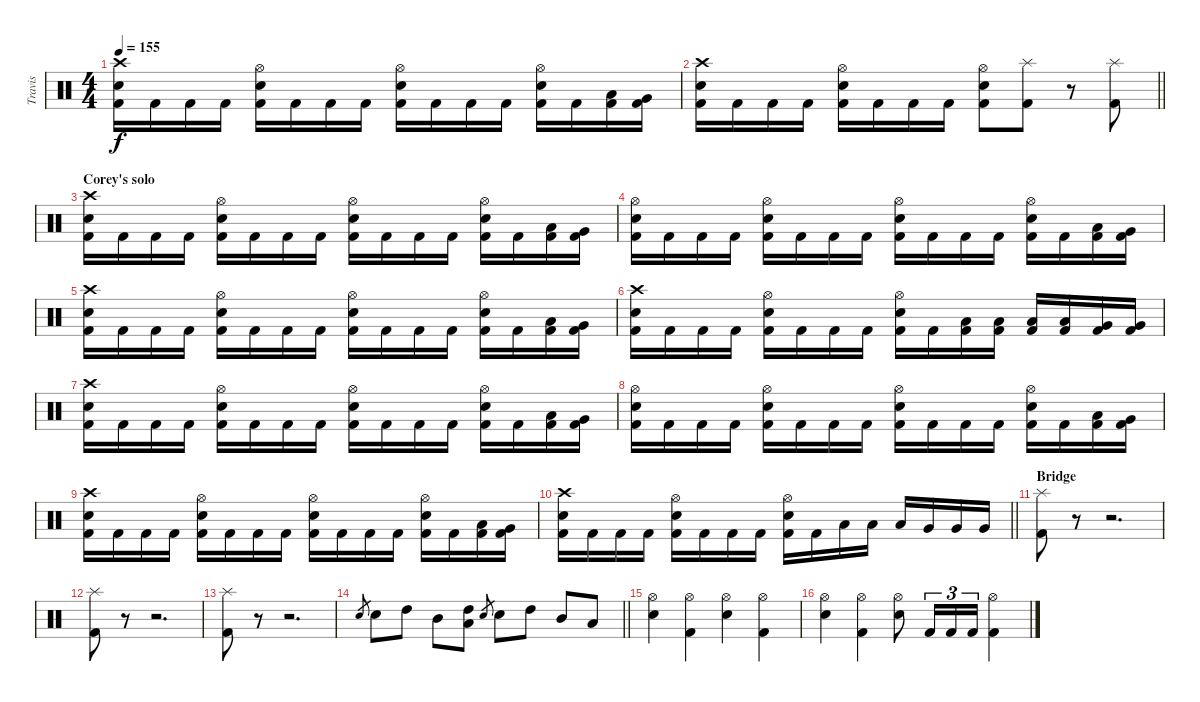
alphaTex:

\track ("Travis" "Travis") {instrument percussion}
\staff {score}
\articulation defaults
\ts (4 4)
\tempo 155
\clef neutral
\ks c
("Crash high (hit)" "Snare (hit) 2" "Kick (hit) 2").16{dy f} "Kick (hit) 2".16 "Kick (hit) 2".16 "Kick (hit) 2".16 ("Hi-Hat (open)" "Snare (hit) 2" "Kick (hit) 2").16 "Kick (hit) 2".16 "Kick (hit) 2".16 "Kick (hit) 2".16 ("Hi-Hat (open)" "Snare (hit) 2" "Kick (hit) 2").16 "Kick (hit) 2".16 "Kick (hit) 2".16 "Kick (hit) 2".16 ("Hi-Hat (open)" "Snare (hit) 2" "Kick (hit) 2").16 "Kick (hit) 2".16 ("Low Tom (hit)" "Kick (hit) 2").16 ("Very Low Tom (hit)" "Kick (hit) 2").16 |
\barLineRight lightlight
("Crash high (hit)" "Snare (hit) 2" "Kick (hit) 2").16 "Kick (hit) 2".16 "Kick (hit) 2".16 "Kick (hit) 2".16 ("Hi-Hat (open)" "Snare (hit) 2" "Kick (hit) 2").16 "Kick (hit) 2".16 "Kick (hit) 2".16 "Kick (hit) 2".16 ("Hi-Hat (open)" "Snare (hit) 2" "Kick (hit) 2").8 ("Splash (hit)" "Kick (hit) 2").8 r.8 ("Splash (hit)" "Kick (hit) 2").8 |
\section ("" "Corey's solo")
("Crash high (hit)" "Snare (hit) 2" "Kick (hit) 2").16 "Kick (hit) 2".16 "Kick (hit) 2".16 "Kick (hit) 2".16 ("Hi-Hat (open)" "Snare (hit) 2" "Kick (hit) 2").16 "Kick (hit) 2".16 "Kick (hit) 2".16 "Kick (hit) 2".16 ("Hi-Hat (open)" "Snare (hit) 2" "Kick (hit) 2").16 "Kick (hit) 2".16 "Kick (hit) 2".16 "Kick (hit) 2".16 ("Hi-Hat (open)" "Snare (hit) 2" "Kick (hit) 2").16 "Kick (hit) 2".16 ("Low Tom (hit)" "Kick (hit) 2").16 ("Very Low Tom (hit)" "Kick (hit) 2").16 |
("Hi-Hat (open)" "Snare (hit) 2" "Kick (hit) 2").16 "Kick (hit) 2".16 "Kick (hit) 2".16 "Kick (hit) 2".16 ("Hi-Hat (open)" "Snare (hit) 2" "Kick (hit) 2").16 "Kick (hit) 2".16 "Kick (hit) 2".16 "Kick (hit) 2".16 ("Hi-Hat (open)" "Snare (hit) 2" "Kick (hit) 2").16 "Kick (hit) 2".16 "Kick (hit) 2".16 "Kick (hit) 2".16 ("Hi-Hat (open)" "Snare (hit) 2" "Kick (hit) 2").16 "Kick (hit) 2".16 ("Low Tom (hit)" "Kick (hit) 2").16 ("Very Low Tom (hit)" "Kick (hit) 2").16 |
("Crash high (hit)" "Snare (hit) 2" "Kick (hit) 2").16 "Kick (hit) 2".16 "Kick (hit) 2".16 "Kick (hit) 2".16 ("Hi-Hat (open)" "Snare (hit) 2" "Kick (hit) 2").16 "Kick (hit) 2".16 "Kick (hit) 2".16 "Kick (hit) 2".16 ("Hi-Hat (open)" "Snare (hit) 2" "Kick (hit) 2").16 "Kick (hit) 2".16 "Kick (hit) 2".16 "Kick (hit) 2".16 ("Hi-Hat (open)" "Snare (hit) 2" "Kick (hit) 2").16 "Kick (hit) 2".16 ("Low Tom (hit)" "Kick (hit) 2").16 ("Very Low Tom (hit)" "Kick (hit) 2").16 |
("Crash high (hit)" "Snare (hit) 2" "Kick (hit) 2").16 "Kick (hit) 2".16 "Kick (hit) 2".16 "Kick (hit) 2".16 ("Hi-Hat (open)" "Snare (hit) 2" "Kick (hit) 2").16 "Kick (hit) 2".16 "Kick (hit) 2".16 "Kick (hit) 2".16 ("Hi-Hat (open)" "Snare (hit) 2" "Kick (hit) 2").16 "Kick (hit) 2".16 ("Low Tom (hit)" "Kick (hit) 2").16 ("Low Tom (hit)" "Kick (hit) 2").16 ("Low Tom (hit)" "Kick (hit) 2").16 ("Low Tom (hit)" "Kick (hit) 2").16 ("Very Low Tom (hit)" "Kick (hit) 2").16 ("Very Low Tom (hit)" "Kick (hit) 2").16 |
("Crash high (hit)" "Snare (hit) 2" "Kick (hit) 2").16 "Kick (hit) 2".16 "Kick (hit) 2".16 "Kick (hit) 2".16 ("Hi-Hat (open)" "Snare (hit) 2" "Kick (hit) 2").16 "Kick (hit) 2".16 "Kick (hit) 2".16 "Kick (hit) 2".16 ("Hi-Hat (open)" "Snare (hit) 2" "Kick (hit) 2").16 "Kick (hit) 2".16 "Kick (hit) 2".16 "Kick (hit) 2".16 ("Hi-Hat (open)" "Snare (hit) 2" "Kick (hit) 2").16 "Kick (hit) 2".16 ("Low Tom (hit)" "Kick (hit) 2").16 ("Very Low Tom (hit)" "Kick (hit) 2").16 |
("Hi-Hat (open)" "Snare (hit) 2" "Kick (hit) 2").16 "Kick (hit) 2".16 "Kick (hit) 2".16 "Kick (hit) 2".16 ("Hi-Hat (open)" "Snare (hit) 2" "Kick (hit) 2").16 "Kick (hit) 2".16 "Kick (hit) 2".16 "Kick (hit) 2".16 ("Hi-Hat (open)" "Snare (hit) 2" "Kick (hit) 2").16 "Kick (hit) 2".16 "Kick (hit) 2".16 "Kick (hit) 2".16 ("Hi-Hat (open)" "Snare (hit) 2" "Kick (hit) 2").16 "Kick (hit) 2".16 ("Low Tom (hit)" "Kick (hit) 2").16 ("Very Low Tom (hit)" "Kick (hit) 2").16 |
("Crash high (hit)" "Snare (hit) 2" "Kick (hit) 2").16 "Kick (hit) 2".16 "Kick (hit) 2".16 "Kick (hit) 2".16 ("Hi-Hat (open)" "Snare (hit) 2" "Kick (hit) 2").16 "Kick (hit) 2".16 "Kick (hit) 2".16 "Kick (hit) 2".16 ("Hi-Hat (open)" "Snare (hit) 2" "Kick (hit) 2").16 "Kick (hit) 2".16 "Kick (hit) 2".16 "Kick (hit) 2".16 ("Hi-Hat (open)" "Snare (hit) 2" "Kick (hit) 2").16 "Kick (hit) 2".16 ("Low Tom (hit)" "Kick (hit) 2").16 ("Very Low Tom (hit)" "Kick (hit) 2").16 |
\barLineRight lightlight
("Crash high (hit)" "Snare (hit) 2" "Kick (hit) 2").16 "Kick (hit) 2".16 "Kick (hit) 2".16 "Kick (hit) 2".16 ("Hi-Hat (open)" "Snare (hit) 2" "Kick (hit) 2").16 "Kick (hit) 2".16 "Kick (hit) 2".16 "Kick (hit) 2".16 ("Hi-Hat (open)" "Snare (hit) 2" "Kick (hit) 2").16 "Kick (hit) 2".16 "Low Tom (hit)".16 "Low Tom (hit)".16 "Low Tom (hit)".16 "Very Low Tom (hit)".16 "Very Low Tom (hit)".16 "Very Low Tom (hit)".16 |
\section ("" "Bridge")
("Splash (hit)" "Kick (hit) 2").8 r.8 r.2{d} |
("Splash (hit)" "Kick (hit) 2").8 r.8 r.2{d} |
("Splash (hit)" "Kick (hit) 2").8 r.8 r.2{d} |
\barLineRight lightlight "Snare (hit) 2".8{gr} "Snare (hit) 2".8 "High Tom (hit)".8 "Mid Tom (hit)".8
("High Tom (hit)" "Low Tom (hit)").8 "Snare (hit) 2".8{gr} "Snare (hit) 2".8 "High Tom (hit)".8 "Mid Tom (hit)".8 "Low Tom (hit)".8 |
("Hi-Hat (open)" "Snare (hit) 2").4 ("Hi-Hat (open)" "Kick (hit) 2").4 ("Hi-Hat (open)" "Snare (hit) 2").4 ("Hi-Hat (open)" "Kick (hit) 2").4 |
("Hi-Hat (open)" "Snare (hit) 2").4 ("Hi-Hat (open)" "Kick (hit) 2").4 ("Hi-Hat (open)" "Snare (hit) 2").8 "Kick (hit) 2".16{tu (3 2)} "Kick (hit) 2".16{tu (3 2)} "Kick (hit) 2".16{tu (3 2)} ("Hi-Hat (open)" "Kick (hit) 2").4
